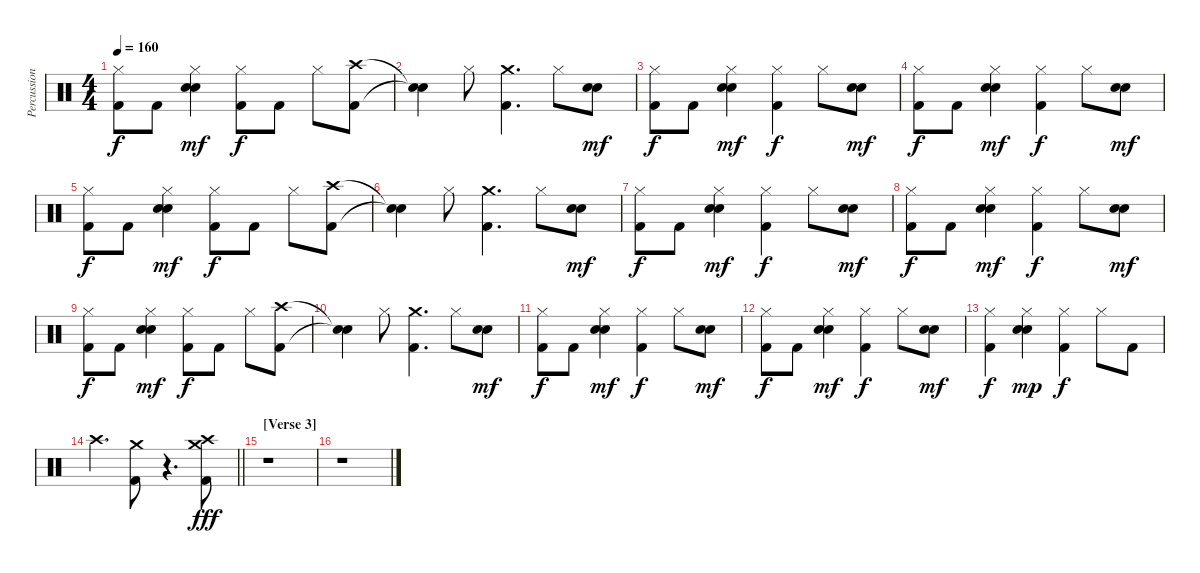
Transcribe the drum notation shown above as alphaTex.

\track ("Percussion" "Percussion") {instrument percussion}
\staff {score}
\articulation defaults
\ts (4 4)
\tempo 160
\clef neutral
\ks c
("Kick (hit) 2" "Hi-Hat (closed)").8{dy f} "Kick (hit) 2".8 ("Snare (hit) 2" "Hi-Hat (closed)" "Electric Snare (hit)").4{dy mf} ("Kick (hit) 2" "Hi-Hat (closed)").8{dy f} "Kick (hit) 2".8 "Hi-Hat (closed)".8 ("Crash high (hit)" "Kick (hit) 2").8 |
("Snare (hit)"{t} "Snare (hit)"{t}).4 "Hi-Hat (closed)".8 ("Crash medium (hit)" "Kick (hit) 2").4{d} "Hi-Hat (closed)".8 ("Snare (hit) 2" "Electric Snare (hit)").8{dy mf} |
("Hi-Hat (closed)" "Kick (hit) 2").8{dy f} "Kick (hit) 2".8 ("Hi-Hat (closed)" "Snare (hit) 2" "Electric Snare (hit)").4{dy mf} ("Hi-Hat (closed)" "Kick (hit) 2").4{dy f} "Hi-Hat (closed)".8 ("Snare (hit) 2" "Electric Snare (hit)").8{dy mf} |
("Hi-Hat (closed)" "Kick (hit) 2").8{dy f} "Kick (hit) 2".8 ("Hi-Hat (closed)" "Snare (hit) 2" "Electric Snare (hit)").4{dy mf} ("Hi-Hat (closed)" "Kick (hit) 2").4{dy f} "Hi-Hat (closed)".8 ("Snare (hit) 2" "Electric Snare (hit)").8{dy mf} |
("Kick (hit) 2" "Hi-Hat (closed)").8{dy f} "Kick (hit) 2".8 ("Snare (hit) 2" "Hi-Hat (closed)" "Electric Snare (hit)").4{dy mf} ("Kick (hit) 2" "Hi-Hat (closed)").8{dy f} "Kick (hit) 2".8 "Hi-Hat (closed)".8 ("Crash high (hit)" "Kick (hit) 2").8 |
("Snare (hit)"{t} "Snare (hit)"{t}).4 "Hi-Hat (closed)".8 ("Crash medium (hit)" "Kick (hit) 2").4{d} "Hi-Hat (closed)".8 ("Snare (hit) 2" "Electric Snare (hit)").8{dy mf} |
("Hi-Hat (closed)" "Kick (hit) 2").8{dy f} "Kick (hit) 2".8 ("Hi-Hat (closed)" "Snare (hit) 2" "Electric Snare (hit)").4{dy mf} ("Hi-Hat (closed)" "Kick (hit) 2").4{dy f} "Hi-Hat (closed)".8 ("Snare (hit) 2" "Electric Snare (hit)").8{dy mf} |
("Hi-Hat (closed)" "Kick (hit) 2").8{dy f} "Kick (hit) 2".8 ("Hi-Hat (closed)" "Snare (hit) 2" "Electric Snare (hit)").4{dy mf} ("Hi-Hat (closed)" "Kick (hit) 2").4{dy f} "Hi-Hat (closed)".8 ("Snare (hit) 2" "Electric Snare (hit)").8{dy mf} |
("Kick (hit) 2" "Hi-Hat (closed)").8{dy f} "Kick (hit) 2".8 ("Snare (hit) 2" "Hi-Hat (closed)" "Electric Snare (hit)").4{dy mf} ("Kick (hit) 2" "Hi-Hat (closed)").8{dy f} "Kick (hit) 2".8 "Hi-Hat (closed)".8 ("Crash high (hit)" "Kick (hit) 2").8 |
("Snare (hit)"{t} "Snare (hit)"{t}).4 "Hi-Hat (closed)".8 ("Crash medium (hit)" "Kick (hit) 2").4{d} "Hi-Hat (closed)".8 ("Snare (hit) 2" "Electric Snare (hit)").8{dy mf} |
("Hi-Hat (closed)" "Kick (hit) 2").8{dy f} "Kick (hit) 2".8 ("Hi-Hat (closed)" "Snare (hit) 2" "Electric Snare (hit)").4{dy mf} ("Hi-Hat (closed)" "Kick (hit) 2").4{dy f} "Hi-Hat (closed)".8 ("Snare (hit) 2" "Electric Snare (hit)").8{dy mf} |
("Hi-Hat (closed)" "Kick (hit) 2").8{dy f} "Kick (hit) 2".8 ("Hi-Hat (closed)" "Snare (hit) 2" "Electric Snare (hit)").4{dy mf} ("Hi-Hat (closed)" "Kick (hit) 2").4{dy f} "Hi-Hat (closed)".8 ("Snare (hit) 2" "Electric Snare (hit)").8{dy mf} |
("Hi-Hat (closed)" "Kick (hit) 2").4{dy f} ("Hi-Hat (closed)" "Snare (hit) 2" "Electric Snare (hit)").4{dy mp} ("Hi-Hat (closed)" "Kick (hit) 2").4{dy f} "Hi-Hat (closed)".8 "Kick (hit) 2".8 |
\barLineRight lightlight "Crash high (hit)".4{d}
("Kick (hit) 2" "Crash medium (hit)").8 r.4{d} ("Crash medium (hit)" "Kick (hit) 2" "Crash high (hit)").8{dy fff} |
\section ("" "[Verse 3]")
r.1 |
r.1
